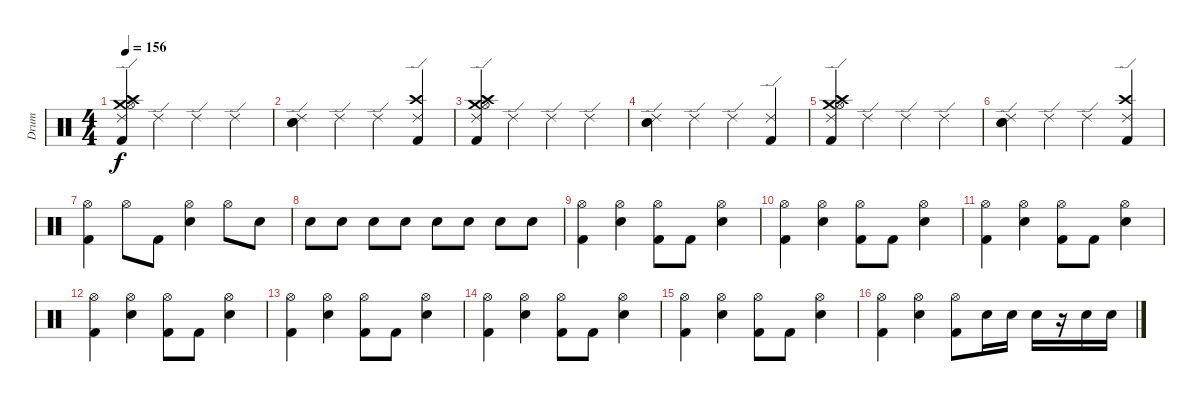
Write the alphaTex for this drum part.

\track (" Drum" " Drum") {instrument percussion}
\staff {score}
\articulation defaults
\ts (4 4)
\tempo 156
\clef neutral
\ks c
("Ride (edge) 2" "Crash medium (hit)" "Hi-Hat (open)" "Crash high (hit)" "Kick (hit) 2").4{dy f} "Ride (edge) 2".4 "Ride (edge) 2".4 "Ride (edge) 2".4 |
("Electric Snare (hit)" "Snare (hit) 2" "Ride (edge) 2").4 "Ride (edge) 2".4 "Ride (edge) 2".4 ("Crash high (hit)" "Kick (hit) 2" "Ride (edge) 2").4 |
("Ride (edge) 2" "Crash medium (hit)" "Hi-Hat (open)" "Crash high (hit)" "Kick (hit) 2").4 "Ride (edge) 2".4 "Ride (edge) 2".4 "Ride (edge) 2".4 |
("Electric Snare (hit)" "Snare (hit) 2" "Ride (edge) 2").4 "Ride (edge) 2".4 "Ride (edge) 2".4 ("Kick (hit) 2" "Ride (edge) 2").4 |
("Ride (edge) 2" "Crash medium (hit)" "Hi-Hat (open)" "Crash high (hit)" "Kick (hit) 2").4 "Ride (edge) 2".4 "Ride (edge) 2".4 "Ride (edge) 2".4 |
("Electric Snare (hit)" "Snare (hit) 2" "Ride (edge) 2").4 "Ride (edge) 2".4 "Ride (edge) 2".4 ("Crash high (hit)" "Kick (hit) 2" "Ride (edge) 2").4 |
("Hi-Hat (open)" "Kick (hit) 2").4 "Hi-Hat (open)".8 "Kick (hit) 2".8 ("Hi-Hat (open)" "Snare (hit) 2").4 "Hi-Hat (open)".8 "Snare (hit) 2".8 |
"Snare (hit) 2".8{volume 0} "Snare (hit) 2".8{volume 1} "Snare (hit) 2".8{volume 3} "Snare (hit) 2".8{volume 4} "Snare (hit) 2".8{volume 6} "Snare (hit) 2".8{volume 7} "Snare (hit) 2".8{volume 9} "Snare (hit) 2".8{volume 10} |
("Hi-Hat (open)" "Kick (hit) 2").4{volume 12} ("Hi-Hat (open)" "Snare (hit) 2").4 ("Hi-Hat (open)" "Kick (hit) 2").8 "Kick (hit) 2".8 ("Hi-Hat (open)" "Snare (hit) 2").4 |
("Hi-Hat (open)" "Kick (hit) 2").4 ("Hi-Hat (open)" "Snare (hit) 2").4 ("Hi-Hat (open)" "Kick (hit) 2").8 "Kick (hit) 2".8 ("Hi-Hat (open)" "Snare (hit) 2").4 |
("Hi-Hat (open)" "Kick (hit) 2").4 ("Hi-Hat (open)" "Snare (hit) 2").4 ("Hi-Hat (open)" "Kick (hit) 2").8 "Kick (hit) 2".8 ("Hi-Hat (open)" "Snare (hit) 2").4 |
("Hi-Hat (open)" "Kick (hit) 2").4 ("Hi-Hat (open)" "Snare (hit) 2").4 ("Hi-Hat (open)" "Kick (hit) 2").8 "Kick (hit) 2".8 ("Hi-Hat (open)" "Snare (hit) 2").4 |
("Hi-Hat (open)" "Kick (hit) 2").4 ("Hi-Hat (open)" "Snare (hit) 2").4 ("Hi-Hat (open)" "Kick (hit) 2").8 "Kick (hit) 2".8 ("Hi-Hat (open)" "Snare (hit) 2").4 |
("Hi-Hat (open)" "Kick (hit) 2").4 ("Hi-Hat (open)" "Snare (hit) 2").4 ("Hi-Hat (open)" "Kick (hit) 2").8 "Kick (hit) 2".8 ("Hi-Hat (open)" "Snare (hit) 2").4 |
("Hi-Hat (open)" "Kick (hit) 2").4 ("Hi-Hat (open)" "Snare (hit) 2").4 ("Hi-Hat (open)" "Kick (hit) 2").8 "Kick (hit) 2".8 ("Hi-Hat (open)" "Snare (hit) 2").4 |
("Hi-Hat (open)" "Kick (hit) 2").4 ("Hi-Hat (open)" "Snare (hit) 2").4 ("Hi-Hat (open)" "Kick (hit) 2").8 "Snare (hit) 2".16 "Snare (hit) 2".16 "Snare (hit) 2".16 r.16 "Snare (hit) 2".16 "Snare (hit) 2".16
